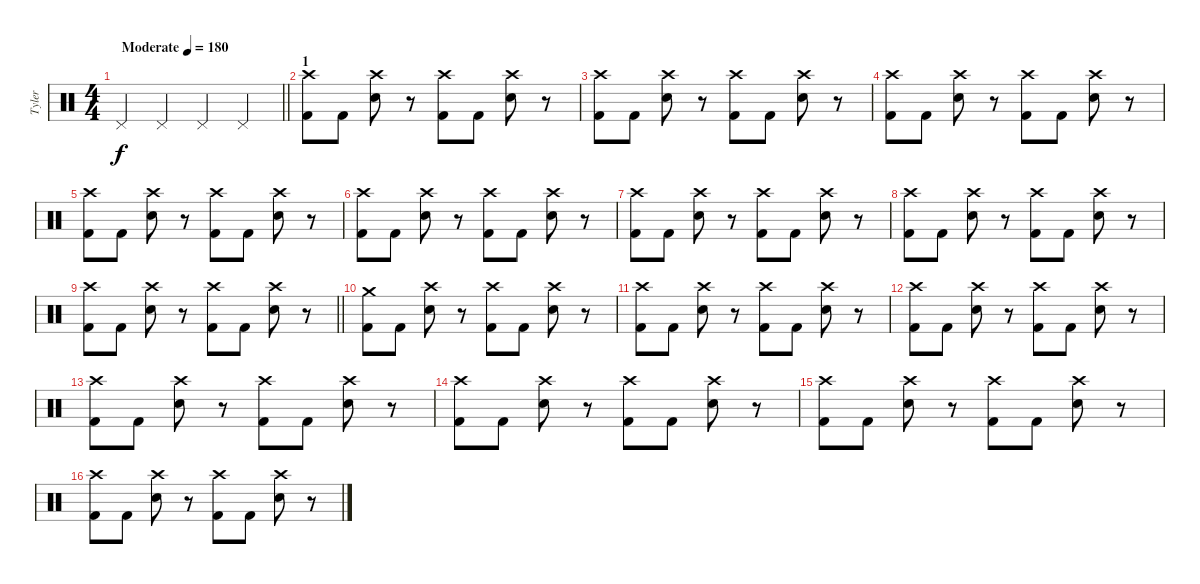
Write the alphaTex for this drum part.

\track ("Tyler" "Tyler") {instrument percussion}
\staff {score}
\articulation defaults
\ts (4 4)
\tempo (180 "Moderate")
\clef neutral
\barLineRight lightlight
\ks c "Pedal Hi-Hat (hit)".4{dy f} "Pedal Hi-Hat (hit)".4 "Pedal Hi-Hat (hit)".4 "Pedal Hi-Hat (hit)".4
|
\section ("" "1")
("Crash high (hit)" "Kick (hit) 2").8 "Kick (hit) 2".8 ("Crash high (hit)" "Snare (hit) 2").8 r.8 ("Crash high (hit)" "Kick (hit) 2").8 "Kick (hit) 2".8 ("Crash high (hit)" "Snare (hit) 2").8 r.8 |
("Crash high (hit)" "Kick (hit) 2").8 "Kick (hit) 2".8 ("Crash high (hit)" "Snare (hit) 2").8 r.8 ("Crash high (hit)" "Kick (hit) 2").8 "Kick (hit) 2".8 ("Crash high (hit)" "Snare (hit) 2").8 r.8 |
("Crash high (hit)" "Kick (hit) 2").8 "Kick (hit) 2".8 ("Crash high (hit)" "Snare (hit) 2").8 r.8 ("Crash high (hit)" "Kick (hit) 2").8 "Kick (hit) 2".8 ("Crash high (hit)" "Snare (hit) 2").8 r.8 |
("Crash high (hit)" "Kick (hit) 2").8 "Kick (hit) 2".8 ("Crash high (hit)" "Snare (hit) 2").8 r.8 ("Crash high (hit)" "Kick (hit) 2").8 "Kick (hit) 2".8 ("Crash high (hit)" "Snare (hit) 2").8 r.8 |
("Crash high (hit)" "Kick (hit) 2").8 "Kick (hit) 2".8 ("Crash high (hit)" "Snare (hit) 2").8 r.8 ("Crash high (hit)" "Kick (hit) 2").8 "Kick (hit) 2".8 ("Crash high (hit)" "Snare (hit) 2").8 r.8 |
("Crash high (hit)" "Kick (hit) 2").8 "Kick (hit) 2".8 ("Crash high (hit)" "Snare (hit) 2").8 r.8 ("Crash high (hit)" "Kick (hit) 2").8 "Kick (hit) 2".8 ("Crash high (hit)" "Snare (hit) 2").8 r.8 |
("Crash high (hit)" "Kick (hit) 2").8 "Kick (hit) 2".8 ("Crash high (hit)" "Snare (hit) 2").8 r.8 ("Crash high (hit)" "Kick (hit) 2").8 "Kick (hit) 2".8 ("Crash high (hit)" "Snare (hit) 2").8 r.8 |
\barLineRight lightlight
("Crash high (hit)" "Kick (hit) 2").8 "Kick (hit) 2".8 ("Crash high (hit)" "Snare (hit) 2").8 r.8 ("Crash high (hit)" "Kick (hit) 2").8 "Kick (hit) 2".8 ("Crash high (hit)" "Snare (hit) 2").8 r.8 |
("Crash medium (hit)" "Kick (hit) 2").8 "Kick (hit) 2".8 ("Crash high (hit)" "Snare (hit) 2").8 r.8 ("Crash high (hit)" "Kick (hit) 2").8 "Kick (hit) 2".8 ("Crash high (hit)" "Snare (hit) 2").8 r.8 |
("Crash high (hit)" "Kick (hit) 2").8 "Kick (hit) 2".8 ("Crash high (hit)" "Snare (hit) 2").8 r.8 ("Crash high (hit)" "Kick (hit) 2").8 "Kick (hit) 2".8 ("Crash high (hit)" "Snare (hit) 2").8 r.8 |
("Crash high (hit)" "Kick (hit) 2").8 "Kick (hit) 2".8 ("Crash high (hit)" "Snare (hit) 2").8 r.8 ("Crash high (hit)" "Kick (hit) 2").8 "Kick (hit) 2".8 ("Crash high (hit)" "Snare (hit) 2").8 r.8 |
("Crash high (hit)" "Kick (hit) 2").8 "Kick (hit) 2".8 ("Crash high (hit)" "Snare (hit) 2").8 r.8 ("Crash high (hit)" "Kick (hit) 2").8 "Kick (hit) 2".8 ("Crash high (hit)" "Snare (hit) 2").8 r.8 |
("Crash high (hit)" "Kick (hit) 2").8 "Kick (hit) 2".8 ("Crash high (hit)" "Snare (hit) 2").8 r.8 ("Crash high (hit)" "Kick (hit) 2").8 "Kick (hit) 2".8 ("Crash high (hit)" "Snare (hit) 2").8 r.8 |
("Crash high (hit)" "Kick (hit) 2").8 "Kick (hit) 2".8 ("Crash high (hit)" "Snare (hit) 2").8 r.8 ("Crash high (hit)" "Kick (hit) 2").8 "Kick (hit) 2".8 ("Crash high (hit)" "Snare (hit) 2").8 r.8 |
("Crash high (hit)" "Kick (hit) 2").8 "Kick (hit) 2".8 ("Crash high (hit)" "Snare (hit) 2").8 r.8 ("Crash high (hit)" "Kick (hit) 2").8 "Kick (hit) 2".8 ("Crash high (hit)" "Snare (hit) 2").8 r.8
